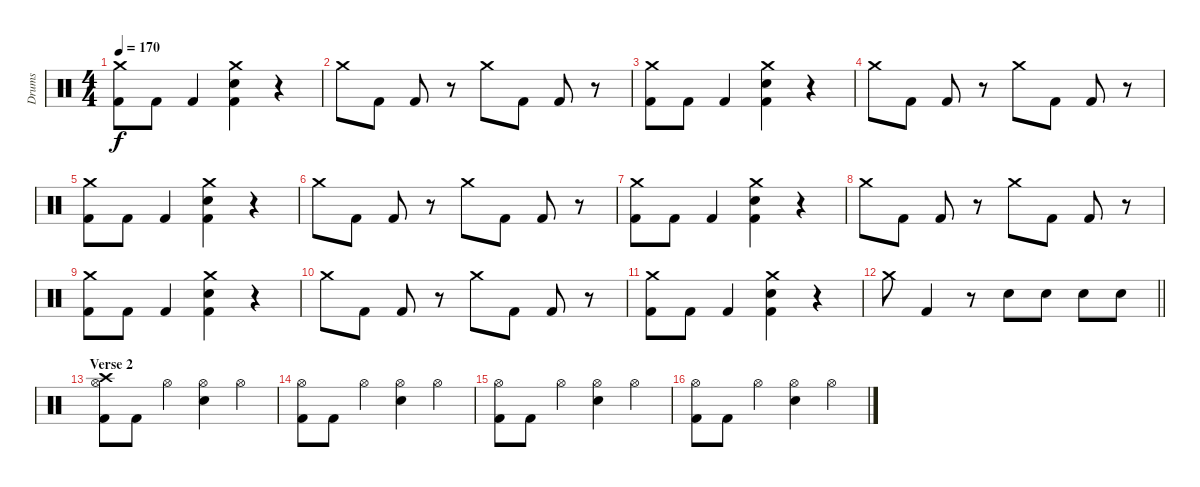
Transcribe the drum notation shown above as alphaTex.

\track ("Drums" "Drums") {instrument percussion}
\staff {score}
\articulation defaults
\ts (4 4)
\tempo 170
\clef neutral
\ks c
("Crash medium (hit)" "Kick (hit) 2").8{dy f} "Kick (hit) 2".8 "Kick (hit) 2".4 ("Crash medium (hit)" "Electric Snare (hit)" "Kick (hit) 2").4 r.4 |
"Crash medium (hit)".8 "Kick (hit) 2".8 "Kick (hit) 2".8 r.8 "Crash medium (hit)".8 "Kick (hit) 2".8 "Kick (hit) 2".8 r.8 |
("Crash medium (hit)" "Kick (hit) 2").8 "Kick (hit) 2".8 "Kick (hit) 2".4 ("Crash medium (hit)" "Electric Snare (hit)" "Kick (hit) 2").4 r.4 |
"Crash medium (hit)".8 "Kick (hit) 2".8 "Kick (hit) 2".8 r.8 "Crash medium (hit)".8 "Kick (hit) 2".8 "Kick (hit) 2".8 r.8 |
("Crash medium (hit)" "Kick (hit) 2").8 "Kick (hit) 2".8 "Kick (hit) 2".4 ("Crash medium (hit)" "Electric Snare (hit)" "Kick (hit) 2").4 r.4 |
"Crash medium (hit)".8 "Kick (hit) 2".8 "Kick (hit) 2".8 r.8 "Crash medium (hit)".8 "Kick (hit) 2".8 "Kick (hit) 2".8 r.8 |
("Crash medium (hit)" "Kick (hit) 2").8 "Kick (hit) 2".8 "Kick (hit) 2".4 ("Crash medium (hit)" "Electric Snare (hit)" "Kick (hit) 2").4 r.4 |
"Crash medium (hit)".8 "Kick (hit) 2".8 "Kick (hit) 2".8 r.8 "Crash medium (hit)".8 "Kick (hit) 2".8 "Kick (hit) 2".8 r.8 |
("Crash medium (hit)" "Kick (hit) 2").8 "Kick (hit) 2".8 "Kick (hit) 2".4 ("Crash medium (hit)" "Electric Snare (hit)" "Kick (hit) 2").4 r.4 |
"Crash medium (hit)".8 "Kick (hit) 2".8 "Kick (hit) 2".8 r.8 "Crash medium (hit)".8 "Kick (hit) 2".8 "Kick (hit) 2".8 r.8 |
("Crash medium (hit)" "Kick (hit) 2").8 "Kick (hit) 2".8 "Kick (hit) 2".4 ("Crash medium (hit)" "Electric Snare (hit)" "Kick (hit) 2").4 r.4 |
\barLineRight lightlight "Crash medium (hit)".8 "Kick (hit) 2".4
r.8 "Electric Snare (hit)".8 "Electric Snare (hit)".8 "Electric Snare (hit)".8 "Electric Snare (hit)".8 |
\section ("" "Verse 2")
("Hi-Hat (open)" "Crash high (hit)" "Kick (hit) 2").8 "Kick (hit) 2".8 "Hi-Hat (open)".4 ("Hi-Hat (open)" "Electric Snare (hit)").4 "Hi-Hat (open)".4 |
("Hi-Hat (open)" "Kick (hit) 2").8 "Kick (hit) 2".8 "Hi-Hat (open)".4 ("Hi-Hat (open)" "Electric Snare (hit)").4 "Hi-Hat (open)".4 |
("Hi-Hat (open)" "Kick (hit) 2").8 "Kick (hit) 2".8 "Hi-Hat (open)".4 ("Hi-Hat (open)" "Electric Snare (hit)").4 "Hi-Hat (open)".4 |
("Hi-Hat (open)" "Kick (hit) 2").8 "Kick (hit) 2".8 "Hi-Hat (open)".4 ("Hi-Hat (open)" "Electric Snare (hit)").4 "Hi-Hat (open)".4
